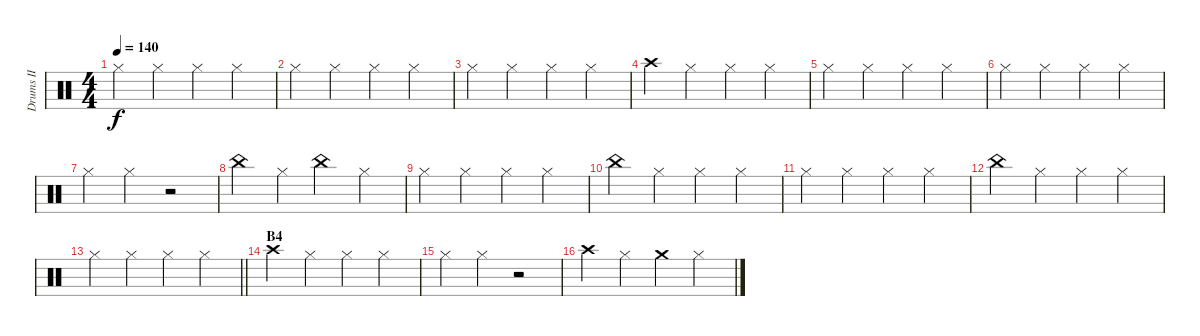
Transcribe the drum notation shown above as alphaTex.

\track ("Drums II" "Drums II") {instrument percussion}
\staff {score}
\articulation defaults
\ts (4 4)
\tempo 140
\clef neutral
\ks c "Hi-Hat (closed)".4{dy f} "Hi-Hat (closed)".4 "Hi-Hat (closed)".4 "Hi-Hat (closed)".4
|
"Hi-Hat (closed)".4 "Hi-Hat (closed)".4 "Hi-Hat (closed)".4 "Hi-Hat (closed)".4 |
"Hi-Hat (closed)".4 "Hi-Hat (closed)".4 "Hi-Hat (closed)".4 "Hi-Hat (closed)".4 |
"Crash high (hit)".4 "Hi-Hat (closed)".4 "Hi-Hat (closed)".4 "Hi-Hat (closed)".4 |
"Hi-Hat (closed)".4 "Hi-Hat (closed)".4 "Hi-Hat (closed)".4 "Hi-Hat (closed)".4 |
"Hi-Hat (closed)".4 "Hi-Hat (closed)".4 "Hi-Hat (closed)".4 "Hi-Hat (closed)".4 |
"Hi-Hat (closed)".4 "Hi-Hat (closed)".4 r.2 |
"China (hit)".4 "Hi-Hat (closed)".4 "China (hit)".4 "Hi-Hat (closed)".4 |
"Hi-Hat (closed)".4 "Hi-Hat (closed)".4 "Hi-Hat (closed)".4 "Hi-Hat (closed)".4 |
"China (hit)".4 "Hi-Hat (closed)".4 "Hi-Hat (closed)".4 "Hi-Hat (closed)".4 |
"Hi-Hat (closed)".4 "Hi-Hat (closed)".4 "Hi-Hat (closed)".4 "Hi-Hat (closed)".4 |
"China (hit)".4 "Hi-Hat (closed)".4 "Hi-Hat (closed)".4 "Hi-Hat (closed)".4 |
\barLineRight lightlight "Hi-Hat (closed)".4 "Hi-Hat (closed)".4 "Hi-Hat (closed)".4 "Hi-Hat (closed)".4
|
\section ("" "B4")
"Crash high (hit)".4 "Hi-Hat (closed)".4 "Hi-Hat (closed)".4 "Hi-Hat (closed)".4 |
"Hi-Hat (closed)".4 "Hi-Hat (closed)".4 r.2 |
"Crash high (hit)".4 "Hi-Hat (closed)".4 "Crash medium (hit)".4 "Hi-Hat (closed)".4
